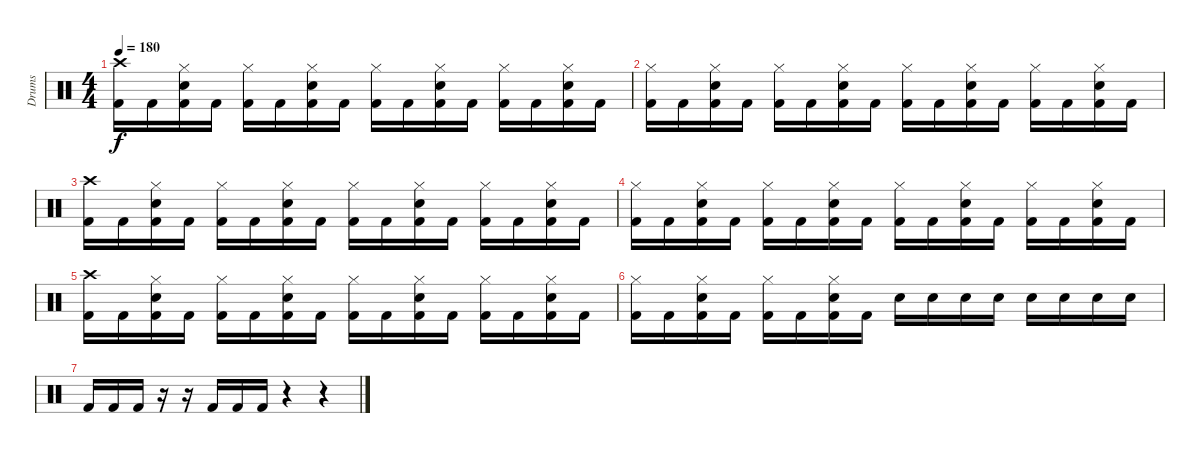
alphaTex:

\track ("Drums" "Drums") {instrument percussion}
\staff {score}
\articulation defaults
\ts (4 4)
\tempo 180
\clef neutral
\ks c
("Crash high (hit)" "Kick (hit) 2").16{dy f} "Kick (hit) 2".16 ("Hi-Hat (closed)" "Electric Snare (hit)" "Kick (hit) 2").16 "Kick (hit) 2".16 ("Hi-Hat (closed)" "Kick (hit) 2").16 "Kick (hit) 2".16 ("Hi-Hat (closed)" "Electric Snare (hit)" "Kick (hit) 2").16 "Kick (hit) 2".16 ("Hi-Hat (closed)" "Kick (hit) 2").16 "Kick (hit) 2".16 ("Hi-Hat (closed)" "Electric Snare (hit)" "Kick (hit) 2").16 "Kick (hit) 2".16 ("Hi-Hat (closed)" "Kick (hit) 2").16 "Kick (hit) 2".16 ("Hi-Hat (closed)" "Electric Snare (hit)" "Kick (hit) 2").16 "Kick (hit) 2".16 |
("Hi-Hat (closed)" "Kick (hit) 2").16 "Kick (hit) 2".16 ("Hi-Hat (closed)" "Electric Snare (hit)" "Kick (hit) 2").16 "Kick (hit) 2".16 ("Hi-Hat (closed)" "Kick (hit) 2").16 "Kick (hit) 2".16 ("Hi-Hat (closed)" "Electric Snare (hit)" "Kick (hit) 2").16 "Kick (hit) 2".16 ("Hi-Hat (closed)" "Kick (hit) 2").16 "Kick (hit) 2".16 ("Hi-Hat (closed)" "Electric Snare (hit)" "Kick (hit) 2").16 "Kick (hit) 2".16 ("Hi-Hat (closed)" "Kick (hit) 2").16 "Kick (hit) 2".16 ("Hi-Hat (closed)" "Electric Snare (hit)" "Kick (hit) 2").16 "Kick (hit) 2".16 |
("Crash high (hit)" "Kick (hit) 2").16 "Kick (hit) 2".16 ("Hi-Hat (closed)" "Electric Snare (hit)" "Kick (hit) 2").16 "Kick (hit) 2".16 ("Hi-Hat (closed)" "Kick (hit) 2").16 "Kick (hit) 2".16 ("Hi-Hat (closed)" "Electric Snare (hit)" "Kick (hit) 2").16 "Kick (hit) 2".16 ("Hi-Hat (closed)" "Kick (hit) 2").16 "Kick (hit) 2".16 ("Hi-Hat (closed)" "Electric Snare (hit)" "Kick (hit) 2").16 "Kick (hit) 2".16 ("Hi-Hat (closed)" "Kick (hit) 2").16 "Kick (hit) 2".16 ("Hi-Hat (closed)" "Electric Snare (hit)" "Kick (hit) 2").16 "Kick (hit) 2".16 |
("Hi-Hat (closed)" "Kick (hit) 2").16 "Kick (hit) 2".16 ("Hi-Hat (closed)" "Electric Snare (hit)" "Kick (hit) 2").16 "Kick (hit) 2".16 ("Hi-Hat (closed)" "Kick (hit) 2").16 "Kick (hit) 2".16 ("Hi-Hat (closed)" "Electric Snare (hit)" "Kick (hit) 2").16 "Kick (hit) 2".16 ("Hi-Hat (closed)" "Kick (hit) 2").16 "Kick (hit) 2".16 ("Hi-Hat (closed)" "Electric Snare (hit)" "Kick (hit) 2").16 "Kick (hit) 2".16 ("Hi-Hat (closed)" "Kick (hit) 2").16 "Kick (hit) 2".16 ("Hi-Hat (closed)" "Electric Snare (hit)" "Kick (hit) 2").16 "Kick (hit) 2".16 |
("Crash high (hit)" "Kick (hit) 2").16 "Kick (hit) 2".16 ("Hi-Hat (closed)" "Electric Snare (hit)" "Kick (hit) 2").16 "Kick (hit) 2".16 ("Hi-Hat (closed)" "Kick (hit) 2").16 "Kick (hit) 2".16 ("Hi-Hat (closed)" "Electric Snare (hit)" "Kick (hit) 2").16 "Kick (hit) 2".16 ("Hi-Hat (closed)" "Kick (hit) 2").16 "Kick (hit) 2".16 ("Hi-Hat (closed)" "Electric Snare (hit)" "Kick (hit) 2").16 "Kick (hit) 2".16 ("Hi-Hat (closed)" "Kick (hit) 2").16 "Kick (hit) 2".16 ("Hi-Hat (closed)" "Electric Snare (hit)" "Kick (hit) 2").16 "Kick (hit) 2".16 |
("Hi-Hat (closed)" "Kick (hit) 2").16 "Kick (hit) 2".16 ("Hi-Hat (closed)" "Electric Snare (hit)" "Kick (hit) 2").16 "Kick (hit) 2".16 ("Hi-Hat (closed)" "Kick (hit) 2").16 "Kick (hit) 2".16 ("Hi-Hat (closed)" "Electric Snare (hit)" "Kick (hit) 2").16 "Kick (hit) 2".16 "Electric Snare (hit)".16 "Electric Snare (hit)".16 "Electric Snare (hit)".16 "Electric Snare (hit)".16 "Electric Snare (hit)".16 "Electric Snare (hit)".16 "Electric Snare (hit)".16 "Electric Snare (hit)".16 |
"Kick (hit) 2".16 "Kick (hit) 2".16 "Kick (hit) 2".16 r.16 r.16 "Kick (hit) 2".16 "Kick (hit) 2".16 "Kick (hit) 2".16 r.4 r.4
